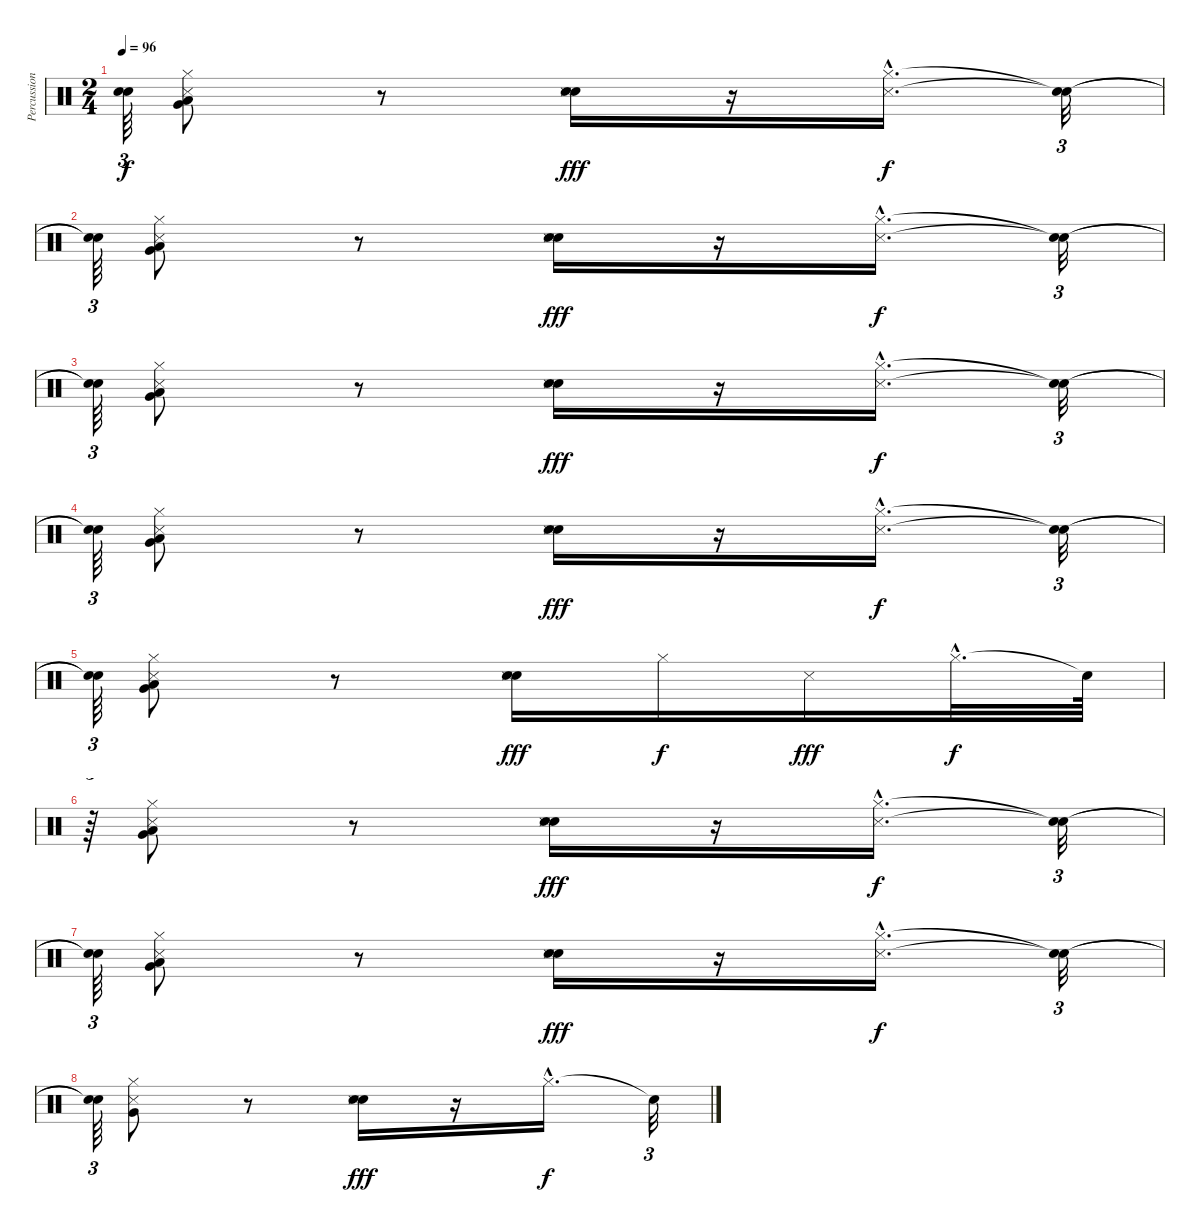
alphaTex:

\track ("Percussion" "Percussion") {instrument percussion}
\staff {score}
\articulation defaults
\ts (2 4)
\tempo 96
\clef neutral
\ks c
("Snare (hit)"{t} "Snare (hit)"{t}).64{tu (3 2) dy f} ("Hi-Hat (closed)" "Snare (side stick) 3" "Very Low Tom (hit)" "Low Floor Tom (hit)").8 r.8 ("Electric Snare (hit)" "Snare (side stick) 3" "Snare (hit) 2").16{dy fff} r.16 ("Hi-Hat (closed)"{hac} "Snare (side stick) 3"{hac}).16{d dy f} ("Snare (hit)"{t} "Snare (hit)"{t}).32{tu (3 2)} |
("Snare (hit)"{t} "Snare (hit)"{t}).64{tu (3 2)} ("Hi-Hat (closed)" "Snare (side stick) 3" "Very Low Tom (hit)" "Low Floor Tom (hit)").8 r.8 ("Electric Snare (hit)" "Snare (side stick) 3" "Snare (hit) 2").16{dy fff} r.16 ("Hi-Hat (closed)"{hac} "Snare (side stick) 3"{hac}).16{d dy f} ("Snare (hit)"{t} "Snare (hit)"{t}).32{tu (3 2)} |
("Snare (hit)"{t} "Snare (hit)"{t}).64{tu (3 2)} ("Hi-Hat (closed)" "Snare (side stick) 3" "Very Low Tom (hit)" "Low Floor Tom (hit)").8 r.8 ("Electric Snare (hit)" "Snare (side stick) 3" "Snare (hit) 2").16{dy fff} r.16 ("Hi-Hat (closed)"{hac} "Snare (side stick) 3"{hac}).16{d dy f} ("Snare (hit)"{t} "Snare (hit)"{t}).32{tu (3 2)} |
("Snare (hit)"{t} "Snare (hit)"{t}).64{tu (3 2)} ("Hi-Hat (closed)" "Snare (side stick) 3" "Very Low Tom (hit)" "Low Floor Tom (hit)").8 r.8 ("Electric Snare (hit)" "Snare (side stick) 3" "Snare (hit) 2").16{dy fff} r.16 ("Hi-Hat (closed)"{hac} "Snare (side stick) 3"{hac}).16{d dy f} ("Snare (hit)"{t} "Snare (hit)"{t}).32{tu (3 2)} |
("Snare (hit)"{t} "Snare (hit)"{t}).64{tu (3 2)} ("Hi-Hat (closed)" "Snare (side stick) 3" "Very Low Tom (hit)" "Low Floor Tom (hit)").8 r.8 ("Electric Snare (hit)" "Snare (side stick) 3" "Snare (hit) 2").16{dy fff} "Hi-Hat (closed)".16{dy f} "Snare (side stick) 3".16{dy fff} "Hi-Hat (closed)"{hac}.32{d dy f} "Snare (hit)"{t}.64 |
r.64{tu (3 2)} ("Hi-Hat (closed)" "Snare (side stick) 3" "Very Low Tom (hit)" "Low Floor Tom (hit)").8 r.8 ("Electric Snare (hit)" "Snare (side stick) 3" "Snare (hit) 2").16{dy fff} r.16 ("Hi-Hat (closed)"{hac} "Snare (side stick) 3"{hac}).16{d dy f} ("Snare (hit)"{t} "Snare (hit)"{t}).32{tu (3 2)} |
("Snare (hit)"{t} "Snare (hit)"{t}).64{tu (3 2)} ("Hi-Hat (closed)" "Snare (side stick) 3" "Very Low Tom (hit)" "Low Floor Tom (hit)").8 r.8 ("Electric Snare (hit)" "Snare (side stick) 3" "Snare (hit) 2").16{dy fff} r.16 ("Hi-Hat (closed)"{hac} "Snare (side stick) 3"{hac}).16{d dy f} ("Snare (hit)"{t} "Snare (hit)"{t}).32{tu (3 2)} |
("Snare (hit)"{t} "Snare (hit)"{t}).64{tu (3 2)} ("Hi-Hat (closed)" "Snare (side stick) 3" "Very Low Tom (hit)").8 r.8 ("Electric Snare (hit)" "Snare (side stick) 3" "Snare (hit) 2").16{dy fff} r.16 "Hi-Hat (closed)"{hac}.16{d dy f} "Snare (hit)"{t}.32{tu (3 2)}
